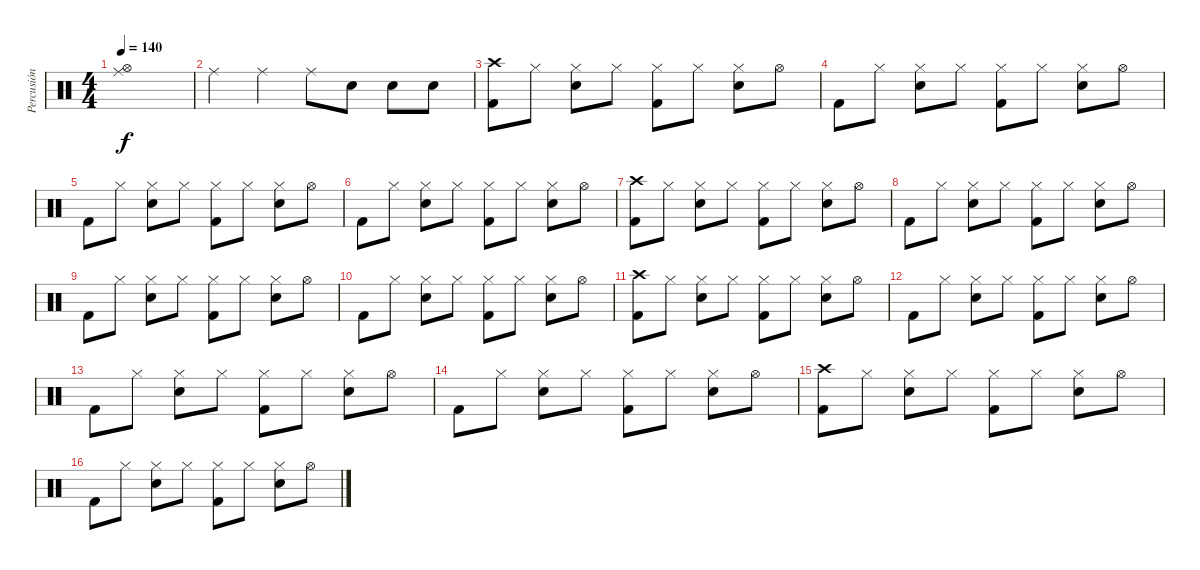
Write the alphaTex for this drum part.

\track ("Percusión" "Percusión") {instrument percussion}
\staff {score}
\articulation defaults
\ts (4 4)
\tempo 140
\clef neutral
\ks c
("Ride (middle)" "Hi-Hat (open)").1{dy f} |
"Ride (middle)".4 "Ride (middle)".4 "Ride (middle)".8 "Electric Snare (hit)".8 "Electric Snare (hit)".8 "Electric Snare (hit)".8 |
("Crash high (hit)" "Kick (hit) 2").8 "Hi-Hat (closed)".8 ("Hi-Hat (closed)" "Electric Snare (hit)").8 "Hi-Hat (closed)".8 ("Hi-Hat (closed)" "Kick (hit) 2").8 "Hi-Hat (closed)".8 ("Hi-Hat (closed)" "Electric Snare (hit)").8 "Hi-Hat (open)".8 |
"Kick (hit) 2".8 "Hi-Hat (closed)".8 ("Hi-Hat (closed)" "Electric Snare (hit)").8 "Hi-Hat (closed)".8 ("Hi-Hat (closed)" "Kick (hit) 2").8 "Hi-Hat (closed)".8 ("Hi-Hat (closed)" "Electric Snare (hit)").8 "Hi-Hat (open)".8 |
"Kick (hit) 2".8 "Hi-Hat (closed)".8 ("Hi-Hat (closed)" "Electric Snare (hit)").8 "Hi-Hat (closed)".8 ("Hi-Hat (closed)" "Kick (hit) 2").8 "Hi-Hat (closed)".8 ("Hi-Hat (closed)" "Electric Snare (hit)").8 "Hi-Hat (open)".8 |
"Kick (hit) 2".8 "Hi-Hat (closed)".8 ("Hi-Hat (closed)" "Electric Snare (hit)").8 "Hi-Hat (closed)".8 ("Hi-Hat (closed)" "Kick (hit) 2").8 "Hi-Hat (closed)".8 ("Hi-Hat (closed)" "Electric Snare (hit)").8 "Hi-Hat (open)".8 |
("Crash high (hit)" "Kick (hit) 2").8 "Hi-Hat (closed)".8 ("Hi-Hat (closed)" "Electric Snare (hit)").8 "Hi-Hat (closed)".8 ("Hi-Hat (closed)" "Kick (hit) 2").8 "Hi-Hat (closed)".8 ("Hi-Hat (closed)" "Electric Snare (hit)").8 "Hi-Hat (open)".8 |
"Kick (hit) 2".8 "Hi-Hat (closed)".8 ("Hi-Hat (closed)" "Electric Snare (hit)").8 "Hi-Hat (closed)".8 ("Hi-Hat (closed)" "Kick (hit) 2").8 "Hi-Hat (closed)".8 ("Hi-Hat (closed)" "Electric Snare (hit)").8 "Hi-Hat (open)".8 |
"Kick (hit) 2".8 "Hi-Hat (closed)".8 ("Hi-Hat (closed)" "Electric Snare (hit)").8 "Hi-Hat (closed)".8 ("Hi-Hat (closed)" "Kick (hit) 2").8 "Hi-Hat (closed)".8 ("Hi-Hat (closed)" "Electric Snare (hit)").8 "Hi-Hat (open)".8 |
"Kick (hit) 2".8 "Hi-Hat (closed)".8 ("Hi-Hat (closed)" "Electric Snare (hit)").8 "Hi-Hat (closed)".8 ("Hi-Hat (closed)" "Kick (hit) 2").8 "Hi-Hat (closed)".8 ("Hi-Hat (closed)" "Electric Snare (hit)").8 "Hi-Hat (open)".8 |
("Crash high (hit)" "Kick (hit) 2").8 "Hi-Hat (closed)".8 ("Hi-Hat (closed)" "Electric Snare (hit)").8 "Hi-Hat (closed)".8 ("Hi-Hat (closed)" "Kick (hit) 2").8 "Hi-Hat (closed)".8 ("Hi-Hat (closed)" "Electric Snare (hit)").8 "Hi-Hat (open)".8 |
"Kick (hit) 2".8 "Hi-Hat (closed)".8 ("Hi-Hat (closed)" "Electric Snare (hit)").8 "Hi-Hat (closed)".8 ("Hi-Hat (closed)" "Kick (hit) 2").8 "Hi-Hat (closed)".8 ("Hi-Hat (closed)" "Electric Snare (hit)").8 "Hi-Hat (open)".8 |
"Kick (hit) 2".8 "Hi-Hat (closed)".8 ("Hi-Hat (closed)" "Electric Snare (hit)").8 "Hi-Hat (closed)".8 ("Hi-Hat (closed)" "Kick (hit) 2").8 "Hi-Hat (closed)".8 ("Hi-Hat (closed)" "Electric Snare (hit)").8 "Hi-Hat (open)".8 |
"Kick (hit) 2".8 "Hi-Hat (closed)".8 ("Hi-Hat (closed)" "Electric Snare (hit)").8 "Hi-Hat (closed)".8 ("Hi-Hat (closed)" "Kick (hit) 2").8 "Hi-Hat (closed)".8 ("Hi-Hat (closed)" "Electric Snare (hit)").8 "Hi-Hat (open)".8 |
("Crash high (hit)" "Kick (hit) 2").8 "Hi-Hat (closed)".8 ("Hi-Hat (closed)" "Electric Snare (hit)").8 "Hi-Hat (closed)".8 ("Hi-Hat (closed)" "Kick (hit) 2").8 "Hi-Hat (closed)".8 ("Hi-Hat (closed)" "Electric Snare (hit)").8 "Hi-Hat (open)".8 |
"Kick (hit) 2".8 "Hi-Hat (closed)".8 ("Hi-Hat (closed)" "Electric Snare (hit)").8 "Hi-Hat (closed)".8 ("Hi-Hat (closed)" "Kick (hit) 2").8 "Hi-Hat (closed)".8 ("Hi-Hat (closed)" "Electric Snare (hit)").8 "Hi-Hat (open)".8
